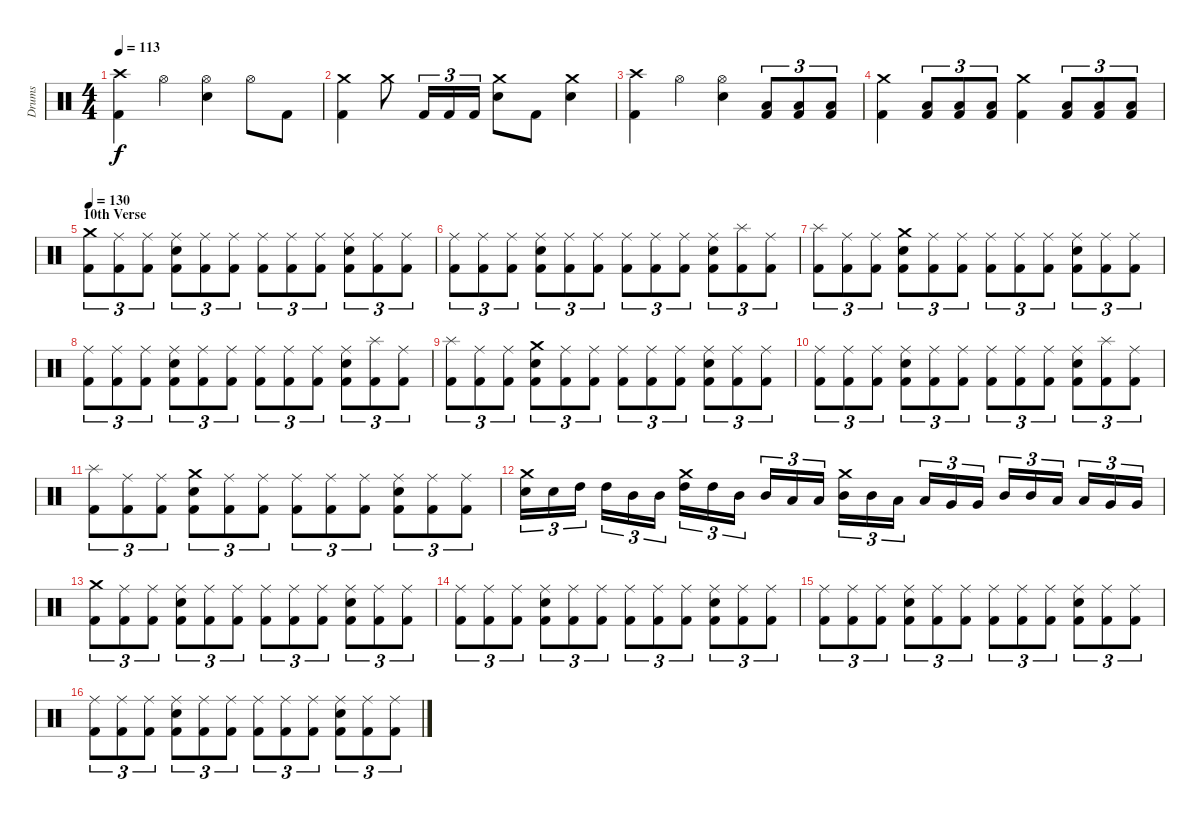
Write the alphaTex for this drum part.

\track ("Drums" "Drums") {instrument percussion}
\staff {score}
\articulation defaults
\ts (4 4)
\tempo 113
\clef neutral
\ks c
("Kick (hit) 2" "Crash high (hit)").4{dy f} "Hi-Hat (open)".4 ("Electric Snare (hit)" "Hi-Hat (open)").4 "Hi-Hat (open)".8 "Kick (hit) 2".8 |
("Kick (hit) 2" "Crash medium (hit)").4 "Crash medium (hit)".8 "Kick (hit) 2".16{tu (3 2)} "Kick (hit) 2".16{tu (3 2)} "Kick (hit) 2".16{tu (3 2)} ("Electric Snare (hit)" "Crash medium (hit)").8 "Kick (hit) 2".8 ("Electric Snare (hit)" "Crash medium (hit)").4 |
("Kick (hit) 2" "Crash high (hit)").4 "Hi-Hat (open)".4 ("Electric Snare (hit)" "Hi-Hat (open)").4 ("Kick (hit) 2" "Low Tom (hit)").8{tu (3 2)} ("Kick (hit) 2" "Low Tom (hit)").8{tu (3 2)} ("Kick (hit) 2" "Low Tom (hit)").8{tu (3 2)} |
("Kick (hit) 2" "Crash medium (hit)").4 ("Kick (hit) 2" "Low Tom (hit)").8{tu (3 2)} ("Kick (hit) 2" "Low Tom (hit)").8{tu (3 2)} ("Kick (hit) 2" "Low Tom (hit)").8{tu (3 2)} ("Kick (hit) 2" "Crash medium (hit)").4 ("Kick (hit) 2" "Low Tom (hit)").8{tu (3 2)} ("Kick (hit) 2" "Low Tom (hit)").8{tu (3 2)} ("Kick (hit) 2" "Low Tom (hit)").8{tu (3 2)} |
\section ("" "10th Verse")
\tempo 130
("Kick (hit) 2" "Crash medium (hit)").8{tu (3 2)} ("Kick (hit) 2" "Ride (middle)").8{tu (3 2)} ("Kick (hit) 2" "Ride (middle)").8{tu (3 2)} ("Kick (hit) 2" "Electric Snare (hit)" "Ride (middle)").8{tu (3 2)} ("Kick (hit) 2" "Ride (middle)").8{tu (3 2)} ("Kick (hit) 2" "Ride (middle)").8{tu (3 2)} ("Kick (hit) 2" "Ride (middle)").8{tu (3 2)} ("Kick (hit) 2" "Ride (middle)").8{tu (3 2)} ("Kick (hit) 2" "Ride (middle)").8{tu (3 2)} ("Kick (hit) 2" "Electric Snare (hit)" "Ride (middle)").8{tu (3 2)} ("Kick (hit) 2" "Ride (middle)").8{tu (3 2)} ("Kick (hit) 2" "Ride (middle)").8{tu (3 2)} |
("Kick (hit) 2" "Ride (middle)").8{tu (3 2)} ("Kick (hit) 2" "Ride (middle)").8{tu (3 2)} ("Kick (hit) 2" "Ride (middle)").8{tu (3 2)} ("Kick (hit) 2" "Electric Snare (hit)" "Ride (middle)").8{tu (3 2)} ("Kick (hit) 2" "Ride (middle)").8{tu (3 2)} ("Kick (hit) 2" "Ride (middle)").8{tu (3 2)} ("Kick (hit) 2" "Ride (middle)").8{tu (3 2)} ("Kick (hit) 2" "Ride (middle)").8{tu (3 2)} ("Kick (hit) 2" "Ride (middle)").8{tu (3 2)} ("Kick (hit) 2" "Electric Snare (hit)" "Ride (middle)").8{tu (3 2)} ("Kick (hit) 2" "Splash (hit)").8{tu (3 2)} ("Kick (hit) 2" "Ride (middle)").8{tu (3 2)} |
("Kick (hit) 2" "Splash (hit)").8{tu (3 2)} ("Kick (hit) 2" "Ride (middle)").8{tu (3 2)} ("Kick (hit) 2" "Ride (middle)").8{tu (3 2)} ("Kick (hit) 2" "Electric Snare (hit)" "Crash medium (hit)").8{tu (3 2)} ("Kick (hit) 2" "Ride (middle)").8{tu (3 2)} ("Kick (hit) 2" "Ride (middle)").8{tu (3 2)} ("Kick (hit) 2" "Ride (middle)").8{tu (3 2)} ("Kick (hit) 2" "Ride (middle)").8{tu (3 2)} ("Kick (hit) 2" "Ride (middle)").8{tu (3 2)} ("Kick (hit) 2" "Electric Snare (hit)" "Ride (middle)").8{tu (3 2)} ("Kick (hit) 2" "Ride (middle)").8{tu (3 2)} ("Kick (hit) 2" "Ride (middle)").8{tu (3 2)} |
("Kick (hit) 2" "Ride (middle)").8{tu (3 2)} ("Kick (hit) 2" "Ride (middle)").8{tu (3 2)} ("Kick (hit) 2" "Ride (middle)").8{tu (3 2)} ("Kick (hit) 2" "Electric Snare (hit)" "Ride (middle)").8{tu (3 2)} ("Kick (hit) 2" "Ride (middle)").8{tu (3 2)} ("Kick (hit) 2" "Ride (middle)").8{tu (3 2)} ("Kick (hit) 2" "Ride (middle)").8{tu (3 2)} ("Kick (hit) 2" "Ride (middle)").8{tu (3 2)} ("Kick (hit) 2" "Ride (middle)").8{tu (3 2)} ("Kick (hit) 2" "Electric Snare (hit)" "Ride (middle)").8{tu (3 2)} ("Kick (hit) 2" "Splash (hit)").8{tu (3 2)} ("Kick (hit) 2" "Ride (middle)").8{tu (3 2)} |
("Kick (hit) 2" "Splash (hit)").8{tu (3 2)} ("Kick (hit) 2" "Ride (middle)").8{tu (3 2)} ("Kick (hit) 2" "Ride (middle)").8{tu (3 2)} ("Kick (hit) 2" "Electric Snare (hit)" "Crash medium (hit)").8{tu (3 2)} ("Kick (hit) 2" "Ride (middle)").8{tu (3 2)} ("Kick (hit) 2" "Ride (middle)").8{tu (3 2)} ("Kick (hit) 2" "Ride (middle)").8{tu (3 2)} ("Kick (hit) 2" "Ride (middle)").8{tu (3 2)} ("Kick (hit) 2" "Ride (middle)").8{tu (3 2)} ("Kick (hit) 2" "Electric Snare (hit)" "Ride (middle)").8{tu (3 2)} ("Kick (hit) 2" "Ride (middle)").8{tu (3 2)} ("Kick (hit) 2" "Ride (middle)").8{tu (3 2)} |
("Kick (hit) 2" "Ride (middle)").8{tu (3 2)} ("Kick (hit) 2" "Ride (middle)").8{tu (3 2)} ("Kick (hit) 2" "Ride (middle)").8{tu (3 2)} ("Kick (hit) 2" "Electric Snare (hit)" "Ride (middle)").8{tu (3 2)} ("Kick (hit) 2" "Ride (middle)").8{tu (3 2)} ("Kick (hit) 2" "Ride (middle)").8{tu (3 2)} ("Kick (hit) 2" "Ride (middle)").8{tu (3 2)} ("Kick (hit) 2" "Ride (middle)").8{tu (3 2)} ("Kick (hit) 2" "Ride (middle)").8{tu (3 2)} ("Kick (hit) 2" "Electric Snare (hit)" "Ride (middle)").8{tu (3 2)} ("Kick (hit) 2" "Splash (hit)").8{tu (3 2)} ("Kick (hit) 2" "Ride (middle)").8{tu (3 2)} |
("Kick (hit) 2" "Splash (hit)").8{tu (3 2)} ("Kick (hit) 2" "Ride (middle)").8{tu (3 2)} ("Kick (hit) 2" "Ride (middle)").8{tu (3 2)} ("Kick (hit) 2" "Electric Snare (hit)" "Crash medium (hit)").8{tu (3 2)} ("Kick (hit) 2" "Ride (middle)").8{tu (3 2)} ("Kick (hit) 2" "Ride (middle)").8{tu (3 2)} ("Kick (hit) 2" "Ride (middle)").8{tu (3 2)} ("Kick (hit) 2" "Ride (middle)").8{tu (3 2)} ("Kick (hit) 2" "Ride (middle)").8{tu (3 2)} ("Kick (hit) 2" "Electric Snare (hit)" "Ride (middle)").8{tu (3 2)} ("Kick (hit) 2" "Ride (middle)").8{tu (3 2)} ("Kick (hit) 2" "Ride (middle)").8{tu (3 2)} |
("Electric Snare (hit)" "Crash medium (hit)").16{tu (3 2)} "Electric Snare (hit)".16{tu (3 2)} "High Tom (hit)".16{tu (3 2)} "High Tom (hit)".16{tu (3 2)} "Mid Tom (hit)".16{tu (3 2)} "Mid Tom (hit)".16{tu (3 2)} ("High Tom (hit)" "Crash medium (hit)").16{tu (3 2)} "High Tom (hit)".16{tu (3 2)} "Mid Tom (hit)".16{tu (3 2)} "Mid Tom (hit)".16{tu (3 2)} "Low Tom (hit)".16{tu (3 2)} "Low Tom (hit)".16{tu (3 2)} ("Mid Tom (hit)" "Crash medium (hit)").16{tu (3 2)} "Mid Tom (hit)".16{tu (3 2)} "Low Tom (hit)".16{tu (3 2)} "Low Tom (hit)".16{tu (3 2)} "Very Low Tom (hit)".16{tu (3 2)} "Very Low Tom (hit)".16{tu (3 2)} "Mid Tom (hit)".16{tu (3 2)} "Mid Tom (hit)".16{tu (3 2)} "Low Tom (hit)".16{tu (3 2)} "Low Tom (hit)".16{tu (3 2)} "Very Low Tom (hit)".16{tu (3 2)} "Very Low Tom (hit)".16{tu (3 2)} |
("Kick (hit) 2" "Crash medium (hit)").8{tu (3 2)} ("Kick (hit) 2" "Ride (middle)").8{tu (3 2)} ("Kick (hit) 2" "Ride (middle)").8{tu (3 2)} ("Kick (hit) 2" "Electric Snare (hit)" "Ride (middle)").8{tu (3 2)} ("Kick (hit) 2" "Ride (middle)").8{tu (3 2)} ("Kick (hit) 2" "Ride (middle)").8{tu (3 2)} ("Kick (hit) 2" "Ride (middle)").8{tu (3 2)} ("Kick (hit) 2" "Ride (middle)").8{tu (3 2)} ("Kick (hit) 2" "Ride (middle)").8{tu (3 2)} ("Kick (hit) 2" "Electric Snare (hit)" "Ride (middle)").8{tu (3 2)} ("Kick (hit) 2" "Ride (middle)").8{tu (3 2)} ("Kick (hit) 2" "Ride (middle)").8{tu (3 2)} |
("Kick (hit) 2" "Ride (middle)").8{tu (3 2)} ("Kick (hit) 2" "Ride (middle)").8{tu (3 2)} ("Kick (hit) 2" "Ride (middle)").8{tu (3 2)} ("Kick (hit) 2" "Electric Snare (hit)" "Ride (middle)").8{tu (3 2)} ("Kick (hit) 2" "Ride (middle)").8{tu (3 2)} ("Kick (hit) 2" "Ride (middle)").8{tu (3 2)} ("Kick (hit) 2" "Ride (middle)").8{tu (3 2)} ("Kick (hit) 2" "Ride (middle)").8{tu (3 2)} ("Kick (hit) 2" "Ride (middle)").8{tu (3 2)} ("Kick (hit) 2" "Electric Snare (hit)" "Ride (middle)").8{tu (3 2)} ("Kick (hit) 2" "Ride (middle)").8{tu (3 2)} ("Kick (hit) 2" "Ride (middle)").8{tu (3 2)} |
("Kick (hit) 2" "Ride (middle)").8{tu (3 2)} ("Kick (hit) 2" "Ride (middle)").8{tu (3 2)} ("Kick (hit) 2" "Ride (middle)").8{tu (3 2)} ("Kick (hit) 2" "Electric Snare (hit)" "Ride (middle)").8{tu (3 2)} ("Kick (hit) 2" "Ride (middle)").8{tu (3 2)} ("Kick (hit) 2" "Ride (middle)").8{tu (3 2)} ("Kick (hit) 2" "Ride (middle)").8{tu (3 2)} ("Kick (hit) 2" "Ride (middle)").8{tu (3 2)} ("Kick (hit) 2" "Ride (middle)").8{tu (3 2)} ("Kick (hit) 2" "Electric Snare (hit)" "Ride (middle)").8{tu (3 2)} ("Kick (hit) 2" "Ride (middle)").8{tu (3 2)} ("Kick (hit) 2" "Ride (middle)").8{tu (3 2)} |
("Kick (hit) 2" "Ride (middle)").8{tu (3 2)} ("Kick (hit) 2" "Ride (middle)").8{tu (3 2)} ("Kick (hit) 2" "Ride (middle)").8{tu (3 2)} ("Kick (hit) 2" "Electric Snare (hit)" "Ride (middle)").8{tu (3 2)} ("Kick (hit) 2" "Ride (middle)").8{tu (3 2)} ("Kick (hit) 2" "Ride (middle)").8{tu (3 2)} ("Kick (hit) 2" "Ride (middle)").8{tu (3 2)} ("Kick (hit) 2" "Ride (middle)").8{tu (3 2)} ("Kick (hit) 2" "Ride (middle)").8{tu (3 2)} ("Kick (hit) 2" "Electric Snare (hit)" "Ride (middle)").8{tu (3 2)} ("Kick (hit) 2" "Ride (middle)").8{tu (3 2)} ("Kick (hit) 2" "Ride (middle)").8{tu (3 2)}
